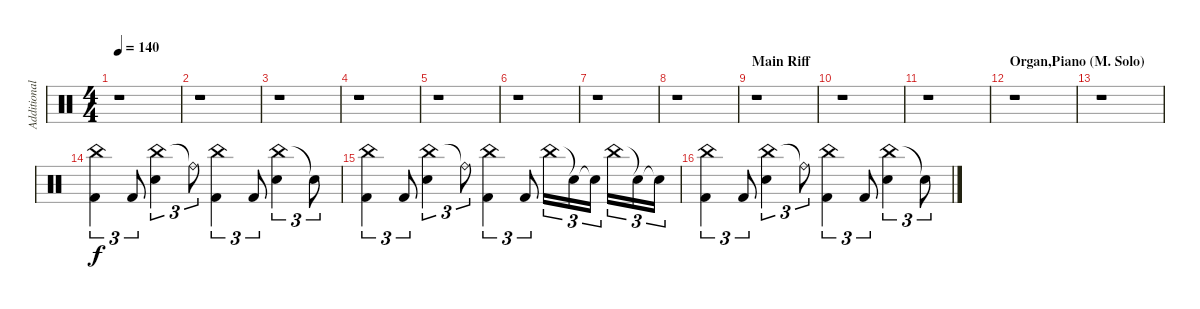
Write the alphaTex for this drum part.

\track ("Additional Drums" "Additional") {instrument percussion}
\staff {score}
\articulation defaults
\ts (4 4)
\tempo 140
\clef neutral
\ks c
r.1{dy f} |
r.1 |
r.1 |
r.1 |
r.1 |
r.1 |
r.1 |
r.1 |
\section ("" "Main Riff")
r.1 |
r.1 |
r.1 |
\section ("" "Organ,Piano (M. Solo)")
r.1 |
r.1 |
("China (hit)" "Kick (hit) 2").4{tu (3 2)} "Kick (hit) 2".8{tu (3 2)} ("China (hit)" "Electric Snare (hit)").4{tu (3 2)} "Ride (bell)"{t}.8{tu (3 2)} ("China (hit)" "Kick (hit) 2").4{tu (3 2)} "Kick (hit) 2".8{tu (3 2)} ("China (hit)" "Electric Snare (hit)").4{tu (3 2)} "Snare (hit)"{t}.8{tu (3 2)} |
("China (hit)" "Kick (hit) 2").4{tu (3 2)} "Kick (hit) 2".8{tu (3 2)} ("China (hit)" "Electric Snare (hit)").4{tu (3 2)} "Ride (bell)"{t}.8{tu (3 2)} ("China (hit)" "Kick (hit) 2").4{tu (3 2)} "Kick (hit) 2".8{tu (3 2)} "China (hit)".16{tu (3 2)} "Snare (hit)"{t}.16{tu (3 2)} "Snare (hit)"{t}.16{tu (3 2)} "China (hit)".16{tu (3 2)} "Snare (hit)"{t}.16{tu (3 2)} "Snare (hit)"{t}.16{tu (3 2)} |
("China (hit)" "Kick (hit) 2").4{tu (3 2)} "Kick (hit) 2".8{tu (3 2)} ("China (hit)" "Electric Snare (hit)").4{tu (3 2)} "Ride (bell)"{t}.8{tu (3 2)} ("China (hit)" "Kick (hit) 2").4{tu (3 2)} "Kick (hit) 2".8{tu (3 2)} ("China (hit)" "Electric Snare (hit)").4{tu (3 2)} "Snare (hit)"{t}.8{tu (3 2)}
